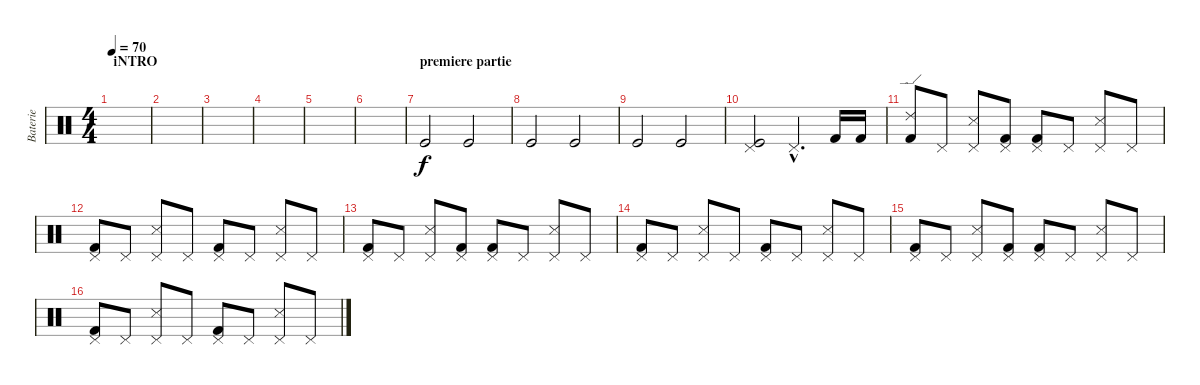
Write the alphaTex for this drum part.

\track ("Baterie" "Baterie") {instrument percussion}
\staff {score}
\articulation defaults
\ts (4 4)
\section ("" "iNTRO")
\tempo 70
\clef neutral
\ks c
|
|
|
|
|
|
\section ("" "premiere partie")
"Kick (hit)".2 "Kick (hit)".2 |
"Kick (hit)".2 "Kick (hit)".2 |
"Kick (hit)".2 "Kick (hit)".2 |
("Pedal Hi-Hat (hit)" "Kick (hit)").2 "Pedal Hi-Hat (hit)"{hac}.4{d} "Kick (hit) 2".16 "Kick (hit) 2".16 |
("Ride (edge) 2" "Kick (hit) 2").8{volume 16} "Pedal Hi-Hat (hit)".8 ("Pedal Hi-Hat (hit)" "Snare (side stick) 3").8 ("Pedal Hi-Hat (hit)" "Kick (hit) 2").8 ("Pedal Hi-Hat (hit)" "Kick (hit) 2").8 "Pedal Hi-Hat (hit)".8 ("Pedal Hi-Hat (hit)" "Snare (side stick) 3").8 "Pedal Hi-Hat (hit)".8 |
("Pedal Hi-Hat (hit)" "Kick (hit) 2").8 "Pedal Hi-Hat (hit)".8 ("Pedal Hi-Hat (hit)" "Snare (side stick) 3").8 "Pedal Hi-Hat (hit)".8 ("Pedal Hi-Hat (hit)" "Kick (hit) 2").8 "Pedal Hi-Hat (hit)".8 ("Pedal Hi-Hat (hit)" "Snare (side stick) 3").8 "Pedal Hi-Hat (hit)".8 |
("Pedal Hi-Hat (hit)" "Kick (hit) 2").8 "Pedal Hi-Hat (hit)".8 ("Pedal Hi-Hat (hit)" "Snare (side stick) 3").8 ("Pedal Hi-Hat (hit)" "Kick (hit) 2").8 ("Pedal Hi-Hat (hit)" "Kick (hit) 2").8 "Pedal Hi-Hat (hit)".8 ("Pedal Hi-Hat (hit)" "Snare (side stick) 3").8 "Pedal Hi-Hat (hit)".8 |
("Pedal Hi-Hat (hit)" "Kick (hit) 2").8 "Pedal Hi-Hat (hit)".8 ("Pedal Hi-Hat (hit)" "Snare (side stick) 3").8 "Pedal Hi-Hat (hit)".8 ("Pedal Hi-Hat (hit)" "Kick (hit) 2").8 "Pedal Hi-Hat (hit)".8 ("Pedal Hi-Hat (hit)" "Snare (side stick) 3").8 "Pedal Hi-Hat (hit)".8 |
("Pedal Hi-Hat (hit)" "Kick (hit) 2").8 "Pedal Hi-Hat (hit)".8 ("Pedal Hi-Hat (hit)" "Snare (side stick) 3").8 ("Pedal Hi-Hat (hit)" "Kick (hit) 2").8 ("Pedal Hi-Hat (hit)" "Kick (hit) 2").8 "Pedal Hi-Hat (hit)".8 ("Pedal Hi-Hat (hit)" "Snare (side stick) 3").8 "Pedal Hi-Hat (hit)".8 |
("Pedal Hi-Hat (hit)" "Kick (hit) 2").8 "Pedal Hi-Hat (hit)".8 ("Pedal Hi-Hat (hit)" "Snare (side stick) 3").8 "Pedal Hi-Hat (hit)".8 ("Pedal Hi-Hat (hit)" "Kick (hit) 2").8 "Pedal Hi-Hat (hit)".8 ("Pedal Hi-Hat (hit)" "Snare (side stick) 3").8 "Pedal Hi-Hat (hit)".8
